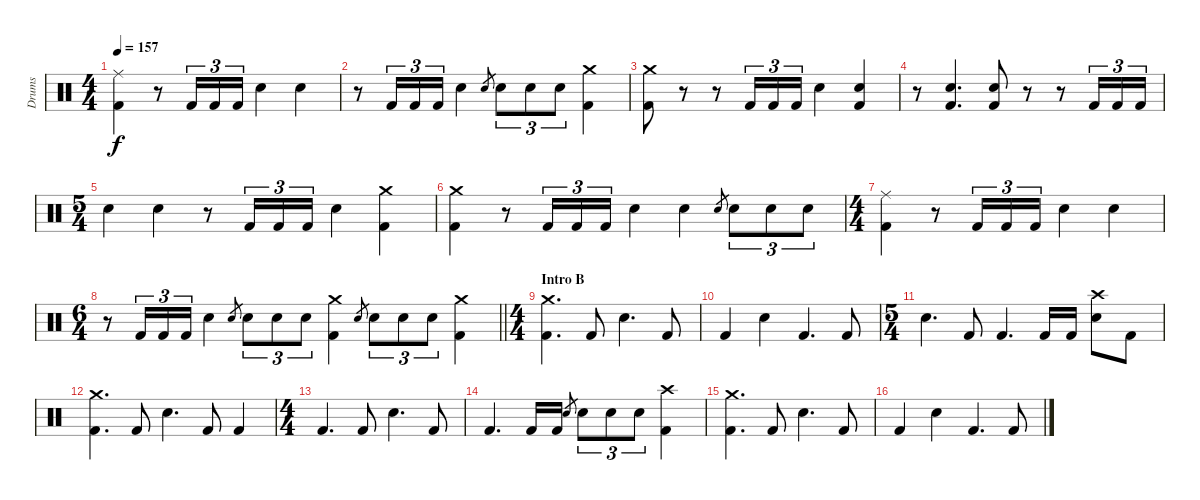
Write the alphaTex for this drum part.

\track ("Drums" "Drums") {instrument percussion}
\staff {score}
\articulation defaults
\ts (4 4)
\tempo 157
\clef neutral
\ks c
("Ride (middle)" "Kick (hit) 2").4{dy f} r.8 "Kick (hit) 2".16{tu (3 2)} "Kick (hit) 2".16{tu (3 2)} "Kick (hit) 2".16{tu (3 2)} "Electric Snare (hit)".4 "Electric Snare (hit)".4 |
r.8 "Kick (hit) 2".16{tu (3 2)} "Kick (hit) 2".16{tu (3 2)} "Kick (hit) 2".16{tu (3 2)} "Electric Snare (hit)".4 "Electric Snare (hit)".8{gr} "Electric Snare (hit)".8{tu (3 2)} "Electric Snare (hit)".8{tu (3 2)} "Electric Snare (hit)".8{tu (3 2)} ("Crash medium (hit)" "Kick (hit) 2").4 |
("Crash medium (hit)" "Kick (hit) 2").8 r.8 r.8 "Kick (hit) 2".16{tu (3 2)} "Kick (hit) 2".16{tu (3 2)} "Kick (hit) 2".16{tu (3 2)} "Electric Snare (hit)".4 ("Electric Snare (hit)" "Kick (hit) 2").4 |
r.8 ("Electric Snare (hit)" "Kick (hit) 2").4{d} ("Electric Snare (hit)" "Kick (hit) 2").8 r.8 r.8 "Kick (hit) 2".16{tu (3 2)} "Kick (hit) 2".16{tu (3 2)} "Kick (hit) 2".16{tu (3 2)} |
\ts (5 4)
"Electric Snare (hit)".4 "Electric Snare (hit)".4 r.8 "Kick (hit) 2".16{tu (3 2)} "Kick (hit) 2".16{tu (3 2)} "Kick (hit) 2".16{tu (3 2)} "Electric Snare (hit)".4 ("Crash medium (hit)" "Kick (hit) 2").4 |
("Crash medium (hit)" "Kick (hit) 2").4 r.8 "Kick (hit) 2".16{tu (3 2)} "Kick (hit) 2".16{tu (3 2)} "Kick (hit) 2".16{tu (3 2)} "Electric Snare (hit)".4 "Electric Snare (hit)".4 "Electric Snare (hit)".8{gr} "Electric Snare (hit)".8{tu (3 2)} "Electric Snare (hit)".8{tu (3 2)} "Electric Snare (hit)".8{tu (3 2)} |
\ts (4 4)
("Ride (middle)" "Kick (hit) 2").4 r.8 "Kick (hit) 2".16{tu (3 2)} "Kick (hit) 2".16{tu (3 2)} "Kick (hit) 2".16{tu (3 2)} "Electric Snare (hit)".4 "Electric Snare (hit)".4 |
\ts (6 4)
\barLineRight lightlight
r.8 "Kick (hit) 2".16{tu (3 2)} "Kick (hit) 2".16{tu (3 2)} "Kick (hit) 2".16{tu (3 2)} "Electric Snare (hit)".4 "Electric Snare (hit)".8{gr} "Electric Snare (hit)".8{tu (3 2)} "Electric Snare (hit)".8{tu (3 2)} "Electric Snare (hit)".8{tu (3 2)} ("Crash medium (hit)" "Kick (hit) 2").4 "Electric Snare (hit)".8{gr} "Electric Snare (hit)".8{tu (3 2)} "Electric Snare (hit)".8{tu (3 2)} "Electric Snare (hit)".8{tu (3 2)} ("Crash medium (hit)" "Kick (hit) 2").4 |
\ts (4 4)
\section ("" "Intro B")
("Crash medium (hit)" "Kick (hit) 2").4{d} "Kick (hit) 2".8 "Electric Snare (hit)".4{d} "Kick (hit) 2".8 |
"Kick (hit) 2".4 "Electric Snare (hit)".4 "Kick (hit) 2".4{d} "Kick (hit) 2".8 |
\ts (5 4)
"Electric Snare (hit)".4{d} "Kick (hit) 2".8 "Kick (hit) 2".4{d} "Kick (hit) 2".16 "Kick (hit) 2".16 ("Crash high (hit)" "Electric Snare (hit)").8 "Kick (hit) 2".8 |
("Crash medium (hit)" "Kick (hit) 2").4{d} "Kick (hit) 2".8 "Electric Snare (hit)".4{d} "Kick (hit) 2".8 "Kick (hit) 2".4 |
\ts (4 4)
"Kick (hit) 2".4{d} "Kick (hit) 2".8 "Electric Snare (hit)".4{d} "Kick (hit) 2".8 |
"Kick (hit) 2".4{d} "Kick (hit) 2".16 "Kick (hit) 2".16 "Electric Snare (hit)".8{gr} "Electric Snare (hit)".8{tu (3 2)} "Electric Snare (hit)".8{tu (3 2)} "Electric Snare (hit)".8{tu (3 2)} ("Crash high (hit)" "Kick (hit) 2").4 |
("Crash medium (hit)" "Kick (hit) 2").4{d} "Kick (hit) 2".8 "Electric Snare (hit)".4{d} "Kick (hit) 2".8 |
"Kick (hit) 2".4 "Electric Snare (hit)".4 "Kick (hit) 2".4{d} "Kick (hit) 2".8
